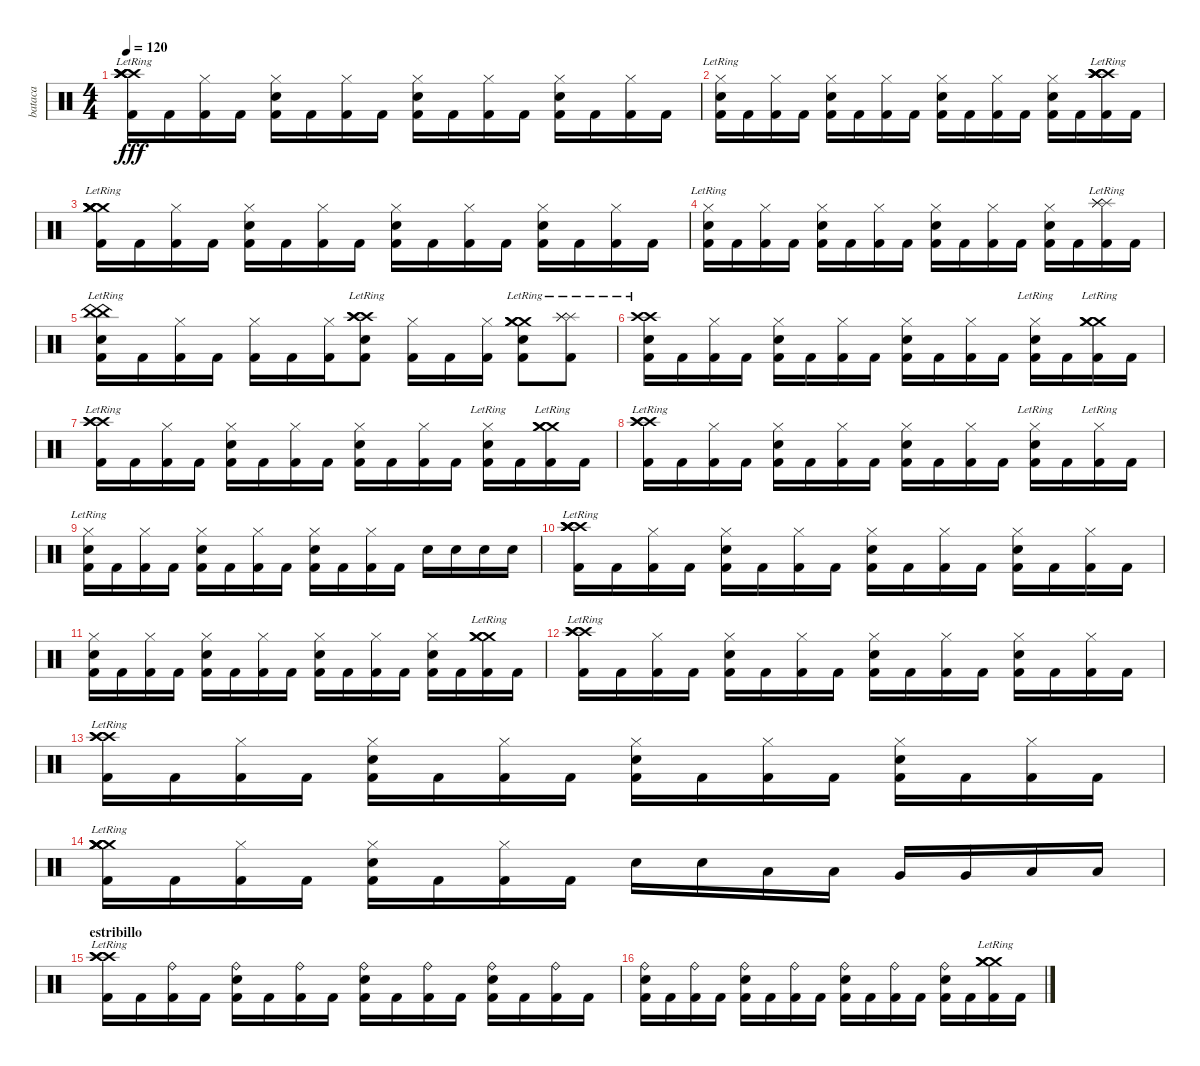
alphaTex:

\track ("bataca" "bataca") {instrument percussion}
\staff {score}
\articulation defaults
\ts (4 4)
\tempo 120
\clef neutral
\ks c
("Kick (hit) 2" "Crash high (hit)"{lr} "Crash high (hit)"{lr} "Crash high (hit)"{lr} "Crash high (hit)"{lr} "Crash high (hit)"{lr}).16{dy fff} "Kick (hit) 2".16 ("Kick (hit) 2" "Hi-Hat (closed)").16 "Kick (hit) 2".16 ("Kick (hit) 2" "Hi-Hat (closed)" "Electric Snare (hit)").16 "Kick (hit) 2".16 ("Kick (hit) 2" "Hi-Hat (closed)").16 "Kick (hit) 2".16 ("Kick (hit) 2" "Hi-Hat (closed)" "Electric Snare (hit)").16 "Kick (hit) 2".16 ("Kick (hit) 2" "Hi-Hat (closed)").16 "Kick (hit) 2".16 ("Kick (hit) 2" "Hi-Hat (closed)" "Electric Snare (hit)").16 "Kick (hit) 2".16 ("Kick (hit) 2" "Hi-Hat (closed)").16 "Kick (hit) 2".16 |
("Kick (hit) 2" "Hi-Hat (closed)"{lr} "Electric Snare (hit)").16 "Kick (hit) 2".16 ("Kick (hit) 2" "Hi-Hat (closed)").16 "Kick (hit) 2".16 ("Kick (hit) 2" "Hi-Hat (closed)" "Electric Snare (hit)").16 "Kick (hit) 2".16 ("Kick (hit) 2" "Hi-Hat (closed)").16 "Kick (hit) 2".16 ("Kick (hit) 2" "Hi-Hat (closed)" "Electric Snare (hit)").16 "Kick (hit) 2".16 ("Kick (hit) 2" "Hi-Hat (closed)").16 "Kick (hit) 2".16 ("Kick (hit) 2" "Hi-Hat (closed)" "Electric Snare (hit)").16 "Kick (hit) 2".16 ("Kick (hit) 2" "Crash high (hit)"{lr} "Crash high (hit)"{lr} "Crash high (hit)"{lr} "Crash high (hit)"{lr} "Crash high (hit)"{lr}).16 "Kick (hit) 2".16 |
("Kick (hit) 2" "Crash medium (hit)"{lr} "Crash medium (hit)"{lr} "Crash medium (hit)"{lr} "Crash medium (hit)"{lr} "Crash medium (hit)"{lr}).16 "Kick (hit) 2".16 ("Kick (hit) 2" "Hi-Hat (closed)").16 "Kick (hit) 2".16 ("Kick (hit) 2" "Hi-Hat (closed)" "Electric Snare (hit)").16 "Kick (hit) 2".16 ("Kick (hit) 2" "Hi-Hat (closed)").16 "Kick (hit) 2".16 ("Kick (hit) 2" "Hi-Hat (closed)" "Electric Snare (hit)").16 "Kick (hit) 2".16 ("Kick (hit) 2" "Hi-Hat (closed)").16 "Kick (hit) 2".16 ("Kick (hit) 2" "Hi-Hat (closed)" "Electric Snare (hit)").16 "Kick (hit) 2".16 ("Kick (hit) 2" "Hi-Hat (closed)").16 "Kick (hit) 2".16 |
("Kick (hit) 2" "Hi-Hat (closed)"{lr} "Electric Snare (hit)").16 "Kick (hit) 2".16 ("Kick (hit) 2" "Hi-Hat (closed)").16 "Kick (hit) 2".16 ("Kick (hit) 2" "Hi-Hat (closed)" "Electric Snare (hit)").16 "Kick (hit) 2".16 ("Kick (hit) 2" "Hi-Hat (closed)").16 "Kick (hit) 2".16 ("Kick (hit) 2" "Hi-Hat (closed)" "Electric Snare (hit)").16 "Kick (hit) 2".16 ("Kick (hit) 2" "Hi-Hat (closed)").16 "Kick (hit) 2".16 ("Kick (hit) 2" "Hi-Hat (closed)" "Electric Snare (hit)").16 "Kick (hit) 2".16 ("Kick (hit) 2" "Splash (hit)"{lr} "Splash (hit)"{lr} "Splash (hit)"{lr}).16 "Kick (hit) 2".16 |
("Kick (hit) 2" "China (hit)"{lr} "China (hit)"{lr} "Electric Snare (hit)").16 "Kick (hit) 2".16 ("Kick (hit) 2" "Hi-Hat (closed)").16 "Kick (hit) 2".16 ("Kick (hit) 2" "Hi-Hat (closed)").16 "Kick (hit) 2".16 ("Kick (hit) 2" "Hi-Hat (closed)").16 ("Kick (hit) 2" "Crash high (hit)"{lr} "Electric Snare (hit)" "Crash high (hit)"{lr} "Crash high (hit)"{lr}).8 ("Kick (hit) 2" "Hi-Hat (closed)").16 "Kick (hit) 2".16 ("Kick (hit) 2" "Hi-Hat (closed)").16 ("Kick (hit) 2" "Electric Snare (hit)" "Crash medium (hit)"{lr} "Crash medium (hit)"{lr} "Crash medium (hit)"{lr}).8 ("Kick (hit) 2" "Splash (hit)"{lr} "Splash (hit)"{lr} "Splash (hit)"{lr}).8 |
("Kick (hit) 2" "Electric Snare (hit)"{lr} "Crash high (hit)"{lr} "Crash high (hit)"{lr}).16 "Kick (hit) 2".16 ("Kick (hit) 2" "Hi-Hat (closed)").16 "Kick (hit) 2".16 ("Kick (hit) 2" "Hi-Hat (closed)" "Electric Snare (hit)").16 "Kick (hit) 2".16 ("Kick (hit) 2" "Hi-Hat (closed)").16 "Kick (hit) 2".16 ("Kick (hit) 2" "Hi-Hat (closed)" "Electric Snare (hit)").16 "Kick (hit) 2".16 ("Kick (hit) 2" "Hi-Hat (closed)").16 "Kick (hit) 2".16 ("Kick (hit) 2" "Hi-Hat (closed)"{lr} "Electric Snare (hit)"{lr}).16 "Kick (hit) 2".16 ("Kick (hit) 2" "Crash medium (hit)"{lr} "Crash medium (hit)"{lr} "Crash medium (hit)"{lr}).16 "Kick (hit) 2".16 |
("Kick (hit) 2" "Crash high (hit)"{lr} "Crash high (hit)"{lr} "Crash high (hit)"{lr}).16 "Kick (hit) 2".16 ("Kick (hit) 2" "Hi-Hat (closed)").16 "Kick (hit) 2".16 ("Kick (hit) 2" "Hi-Hat (closed)" "Electric Snare (hit)").16 "Kick (hit) 2".16 ("Kick (hit) 2" "Hi-Hat (closed)").16 "Kick (hit) 2".16 ("Kick (hit) 2" "Hi-Hat (closed)" "Electric Snare (hit)").16 "Kick (hit) 2".16 ("Kick (hit) 2" "Hi-Hat (closed)").16 "Kick (hit) 2".16 ("Kick (hit) 2" "Hi-Hat (closed)"{lr} "Electric Snare (hit)"{lr}).16 "Kick (hit) 2".16 ("Kick (hit) 2" "Crash medium (hit)"{lr} "Crash medium (hit)"{lr} "Crash medium (hit)"{lr}).16 "Kick (hit) 2".16 |
("Kick (hit) 2" "Crash high (hit)"{lr} "Crash high (hit)"{lr} "Crash high (hit)"{lr}).16 "Kick (hit) 2".16 ("Kick (hit) 2" "Hi-Hat (closed)").16 "Kick (hit) 2".16 ("Kick (hit) 2" "Hi-Hat (closed)" "Electric Snare (hit)").16 "Kick (hit) 2".16 ("Kick (hit) 2" "Hi-Hat (closed)").16 "Kick (hit) 2".16 ("Kick (hit) 2" "Hi-Hat (closed)" "Electric Snare (hit)").16 "Kick (hit) 2".16 ("Kick (hit) 2" "Hi-Hat (closed)").16 "Kick (hit) 2".16 ("Kick (hit) 2" "Hi-Hat (closed)"{lr} "Electric Snare (hit)"{lr}).16 "Kick (hit) 2".16 ("Kick (hit) 2" "Hi-Hat (closed)"{lr}).16 "Kick (hit) 2".16 |
("Kick (hit) 2" "Hi-Hat (closed)"{lr} "Electric Snare (hit)"{lr}).16 "Kick (hit) 2".16 ("Kick (hit) 2" "Hi-Hat (closed)").16 "Kick (hit) 2".16 ("Kick (hit) 2" "Hi-Hat (closed)" "Electric Snare (hit)").16 "Kick (hit) 2".16 ("Kick (hit) 2" "Hi-Hat (closed)").16 "Kick (hit) 2".16 ("Kick (hit) 2" "Hi-Hat (closed)" "Electric Snare (hit)").16 "Kick (hit) 2".16 ("Kick (hit) 2" "Hi-Hat (closed)").16 "Kick (hit) 2".16 "Electric Snare (hit)".16 "Electric Snare (hit)".16 "Electric Snare (hit)".16 "Electric Snare (hit)".16 |
("Kick (hit) 2" "Crash high (hit)"{lr} "Crash high (hit)"{lr} "Crash high (hit)"{lr} "Crash high (hit)"{lr} "Crash high (hit)"{lr}).16 "Kick (hit) 2".16 ("Kick (hit) 2" "Hi-Hat (closed)").16 "Kick (hit) 2".16 ("Kick (hit) 2" "Hi-Hat (closed)" "Electric Snare (hit)").16 "Kick (hit) 2".16 ("Kick (hit) 2" "Hi-Hat (closed)").16 "Kick (hit) 2".16 ("Kick (hit) 2" "Hi-Hat (closed)" "Electric Snare (hit)").16 "Kick (hit) 2".16 ("Kick (hit) 2" "Hi-Hat (closed)").16 "Kick (hit) 2".16 ("Kick (hit) 2" "Hi-Hat (closed)" "Electric Snare (hit)").16 "Kick (hit) 2".16 ("Kick (hit) 2" "Hi-Hat (closed)").16 "Kick (hit) 2".16 |
("Kick (hit) 2" "Hi-Hat (closed)" "Electric Snare (hit)").16 "Kick (hit) 2".16 ("Kick (hit) 2" "Hi-Hat (closed)").16 "Kick (hit) 2".16 ("Kick (hit) 2" "Hi-Hat (closed)" "Electric Snare (hit)").16 "Kick (hit) 2".16 ("Kick (hit) 2" "Hi-Hat (closed)").16 "Kick (hit) 2".16 ("Kick (hit) 2" "Hi-Hat (closed)" "Electric Snare (hit)").16 "Kick (hit) 2".16 ("Kick (hit) 2" "Hi-Hat (closed)").16 "Kick (hit) 2".16 ("Kick (hit) 2" "Hi-Hat (closed)" "Electric Snare (hit)").16 "Kick (hit) 2".16 ("Kick (hit) 2" "Crash medium (hit)"{lr} "Crash medium (hit)"{lr} "Crash medium (hit)"{lr}).16 "Kick (hit) 2".16 |
("Kick (hit) 2" "Crash high (hit)"{lr} "Crash high (hit)"{lr} "Crash high (hit)"{lr}).16 "Kick (hit) 2".16 ("Kick (hit) 2" "Hi-Hat (closed)").16 "Kick (hit) 2".16 ("Kick (hit) 2" "Hi-Hat (closed)" "Electric Snare (hit)").16 "Kick (hit) 2".16 ("Kick (hit) 2" "Hi-Hat (closed)").16 "Kick (hit) 2".16 ("Kick (hit) 2" "Hi-Hat (closed)" "Electric Snare (hit)").16 "Kick (hit) 2".16 ("Kick (hit) 2" "Hi-Hat (closed)").16 "Kick (hit) 2".16 ("Kick (hit) 2" "Hi-Hat (closed)" "Electric Snare (hit)").16 "Kick (hit) 2".16 ("Kick (hit) 2" "Hi-Hat (closed)").16 "Kick (hit) 2".16 |
("Kick (hit) 2" "Crash high (hit)"{lr} "Crash high (hit)"{lr} "Crash high (hit)"{lr}).16 "Kick (hit) 2".16 ("Kick (hit) 2" "Hi-Hat (closed)").16 "Kick (hit) 2".16 ("Kick (hit) 2" "Hi-Hat (closed)" "Electric Snare (hit)").16 "Kick (hit) 2".16 ("Kick (hit) 2" "Hi-Hat (closed)").16 "Kick (hit) 2".16 ("Kick (hit) 2" "Hi-Hat (closed)" "Electric Snare (hit)").16 "Kick (hit) 2".16 ("Kick (hit) 2" "Hi-Hat (closed)").16 "Kick (hit) 2".16 ("Kick (hit) 2" "Hi-Hat (closed)" "Electric Snare (hit)").16 "Kick (hit) 2".16 ("Kick (hit) 2" "Hi-Hat (closed)").16 "Kick (hit) 2".16 |
("Kick (hit) 2" "Crash medium (hit)"{lr} "Crash medium (hit)"{lr} "Crash medium (hit)"{lr} "Crash medium (hit)"{lr} "Crash medium (hit)"{lr}).16 "Kick (hit) 2".16 ("Kick (hit) 2" "Hi-Hat (closed)").16 "Kick (hit) 2".16 ("Kick (hit) 2" "Hi-Hat (closed)" "Electric Snare (hit)").16 "Kick (hit) 2".16 ("Kick (hit) 2" "Hi-Hat (closed)").16 "Kick (hit) 2".16 "Electric Snare (hit)".16 "Electric Snare (hit)".16 "Low Tom (hit)".16 "Low Tom (hit)".16 "Very Low Tom (hit)".16 "Very Low Tom (hit)".16 "Low Floor Tom (hit)".16 "Low Floor Tom (hit)".16 |
\section ("" "estribillo")
("Kick (hit) 2" "Crash high (hit)"{lr} "Crash high (hit)"{lr} "Crash high (hit)"{lr}).16 "Kick (hit) 2".16 ("Kick (hit) 2" "Ride (bell)").16 "Kick (hit) 2".16 ("Kick (hit) 2" "Ride (bell)" "Electric Snare (hit)").16 "Kick (hit) 2".16 ("Kick (hit) 2" "Ride (bell)").16 "Kick (hit) 2".16 ("Kick (hit) 2" "Ride (bell)" "Electric Snare (hit)").16 "Kick (hit) 2".16 ("Kick (hit) 2" "Ride (bell)").16 "Kick (hit) 2".16 ("Kick (hit) 2" "Ride (bell)" "Electric Snare (hit)").16 "Kick (hit) 2".16 ("Kick (hit) 2" "Ride (bell)").16 "Kick (hit) 2".16 |
("Kick (hit) 2" "Ride (bell)" "Electric Snare (hit)").16 "Kick (hit) 2".16 ("Kick (hit) 2" "Ride (bell)").16 "Kick (hit) 2".16 ("Kick (hit) 2" "Ride (bell)" "Electric Snare (hit)").16 "Kick (hit) 2".16 ("Kick (hit) 2" "Ride (bell)").16 "Kick (hit) 2".16 ("Kick (hit) 2" "Ride (bell)" "Electric Snare (hit)").16 "Kick (hit) 2".16 ("Kick (hit) 2" "Ride (bell)").16 "Kick (hit) 2".16 ("Kick (hit) 2" "Ride (bell)" "Electric Snare (hit)").16 "Kick (hit) 2".16 ("Kick (hit) 2" "Crash medium (hit)"{lr} "Crash medium (hit)"{lr} "Crash medium (hit)"{lr}).16 "Kick (hit) 2".16
